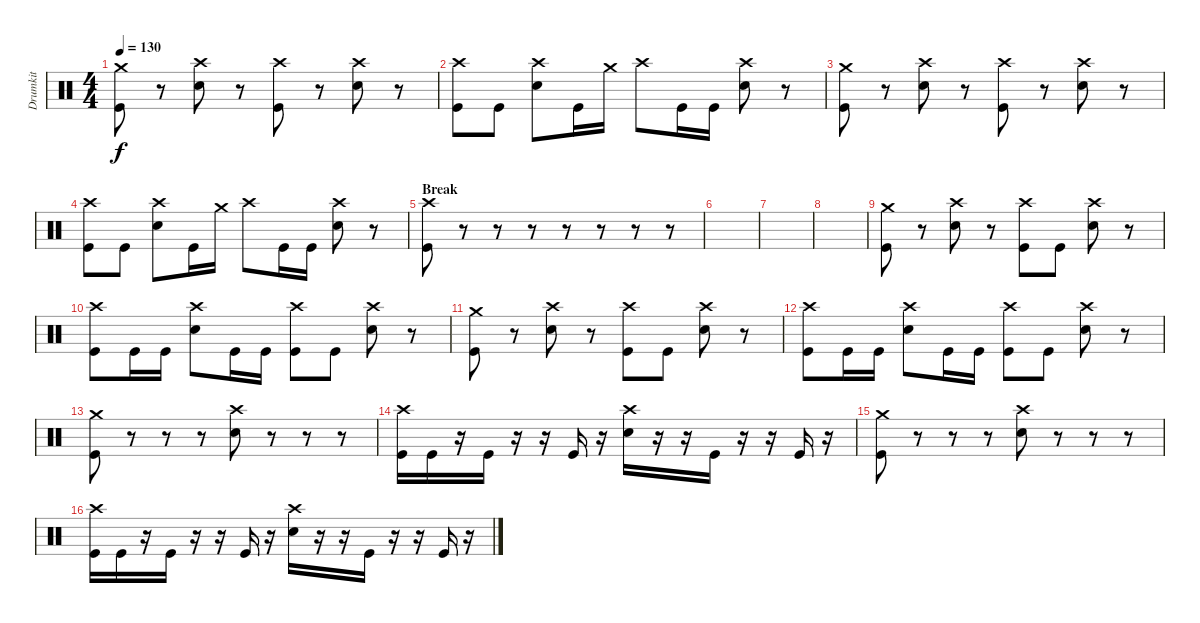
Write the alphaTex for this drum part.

\track ("Drumkit" "Drumkit") {instrument percussion}
\staff {score}
\articulation defaults
\ts (4 4)
\tempo 130
\clef neutral
\ks c
("Crash medium (hit)" "Kick (hit)").8{dy f} r.8 ("Crash high (hit)" "Snare (hit) 2").8 r.8 ("Crash high (hit)" "Kick (hit)").8 r.8 ("Crash high (hit)" "Snare (hit) 2").8 r.8 |
("Crash high (hit)" "Kick (hit)").8 "Kick (hit)".8 ("Crash high (hit)" "Snare (hit) 2").8 "Kick (hit)".16 "Crash medium (hit)".16 "Crash high (hit)".8 "Kick (hit)".16 "Kick (hit)".16 ("Crash high (hit)" "Snare (hit) 2").8 r.8 |
("Crash medium (hit)" "Kick (hit)").8 r.8 ("Crash high (hit)" "Snare (hit) 2").8 r.8 ("Crash high (hit)" "Kick (hit)").8 r.8 ("Crash high (hit)" "Snare (hit) 2").8 r.8 |
("Crash high (hit)" "Kick (hit)").8 "Kick (hit)".8 ("Crash high (hit)" "Snare (hit) 2").8 "Kick (hit)".16 "Crash medium (hit)".16 "Crash high (hit)".8 "Kick (hit)".16 "Kick (hit)".16 ("Crash high (hit)" "Snare (hit) 2").8 r.8 |
\section ("" "Break")
("Crash high (hit)" "Kick (hit)").8 r.8 r.8 r.8 r.8 r.8 r.8 r.8 |
|
|
|
("Crash medium (hit)" "Kick (hit)").8 r.8 ("Crash high (hit)" "Electric Snare (hit)").8 r.8 ("Crash high (hit)" "Kick (hit)").8 "Kick (hit)".8 ("Crash high (hit)" "Electric Snare (hit)").8 r.8 |
("Crash high (hit)" "Kick (hit)").8 "Kick (hit)".16 "Kick (hit)".16 ("Crash high (hit)" "Electric Snare (hit)").8 "Kick (hit)".16 "Kick (hit)".16 ("Crash high (hit)" "Kick (hit)").8 "Kick (hit)".8 ("Crash high (hit)" "Electric Snare (hit)").8 r.8 |
("Crash medium (hit)" "Kick (hit)").8 r.8 ("Crash high (hit)" "Electric Snare (hit)").8 r.8 ("Crash high (hit)" "Kick (hit)").8 "Kick (hit)".8 ("Crash high (hit)" "Electric Snare (hit)").8 r.8 |
("Crash high (hit)" "Kick (hit)").8 "Kick (hit)".16 "Kick (hit)".16 ("Crash high (hit)" "Electric Snare (hit)").8 "Kick (hit)".16 "Kick (hit)".16 ("Crash high (hit)" "Kick (hit)").8 "Kick (hit)".8 ("Crash high (hit)" "Electric Snare (hit)").8 r.8 |
("Crash medium (hit)" "Kick (hit)").8 r.8 r.8 r.8 ("Crash high (hit)" "Electric Snare (hit)").8 r.8 r.8 r.8 |
("Crash high (hit)" "Kick (hit)").16 "Kick (hit)".16 r.16 "Kick (hit)".16 r.16 r.16 "Kick (hit)".16 r.16 ("Crash high (hit)" "Electric Snare (hit)").16 r.16 r.16 "Kick (hit)".16 r.16 r.16 "Kick (hit)".16 r.16 |
("Crash medium (hit)" "Kick (hit)").8 r.8 r.8 r.8 ("Crash high (hit)" "Electric Snare (hit)").8 r.8 r.8 r.8 |
("Crash high (hit)" "Kick (hit)").16 "Kick (hit)".16 r.16 "Kick (hit)".16 r.16 r.16 "Kick (hit)".16 r.16 ("Crash high (hit)" "Electric Snare (hit)").16 r.16 r.16 "Kick (hit)".16 r.16 r.16 "Kick (hit)".16 r.16
